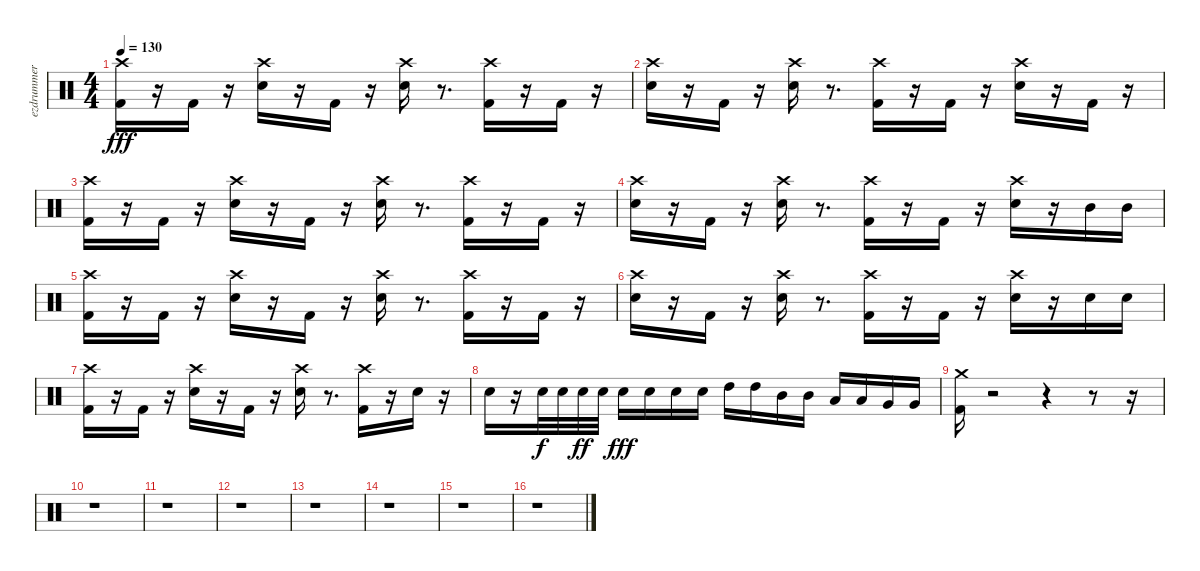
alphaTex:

\track ("ezdrummer 01" "ezdrummer ") {instrument percussion}
\staff {score}
\articulation defaults
\ts (4 4)
\tempo 130
\clef neutral
\ks c
("Kick (hit) 2" "Crash high (hit)").16{dy fff} r.16 "Kick (hit) 2".16 r.16 ("Snare (hit) 2" "Crash high (hit)").16 r.16 "Kick (hit) 2".16 r.16 ("Snare (hit) 2" "Crash high (hit)").16 r.8{d} ("Kick (hit) 2" "Crash high (hit)").16 r.16 "Kick (hit) 2".16 r.16 |
("Snare (hit) 2" "Crash high (hit)").16 r.16 "Kick (hit) 2".16 r.16 ("Snare (hit) 2" "Crash high (hit)").16 r.8{d} ("Kick (hit) 2" "Crash high (hit)").16 r.16 "Kick (hit) 2".16 r.16 ("Snare (hit) 2" "Crash high (hit)").16 r.16 "Kick (hit) 2".16 r.16 |
("Kick (hit) 2" "Crash high (hit)").16 r.16 "Kick (hit) 2".16 r.16 ("Snare (hit) 2" "Crash high (hit)").16 r.16 "Kick (hit) 2".16 r.16 ("Snare (hit) 2" "Crash high (hit)").16 r.8{d} ("Kick (hit) 2" "Crash high (hit)").16 r.16 "Kick (hit) 2".16 r.16 |
("Snare (hit) 2" "Crash high (hit)").16 r.16 "Kick (hit) 2".16 r.16 ("Snare (hit) 2" "Crash high (hit)").16 r.8{d} ("Kick (hit) 2" "Crash high (hit)").16 r.16 "Kick (hit) 2".16 r.16 ("Snare (hit) 2" "Crash high (hit)").16 r.16 "Mid Tom (hit)".16 "Mid Tom (hit)".16 |
("Kick (hit) 2" "Crash high (hit)").16 r.16 "Kick (hit) 2".16 r.16 ("Snare (hit) 2" "Crash high (hit)").16 r.16 "Kick (hit) 2".16 r.16 ("Snare (hit) 2" "Crash high (hit)").16 r.8{d} ("Kick (hit) 2" "Crash high (hit)").16 r.16 "Kick (hit) 2".16 r.16 |
("Snare (hit) 2" "Crash high (hit)").16 r.16 "Kick (hit) 2".16 r.16 ("Snare (hit) 2" "Crash high (hit)").16 r.8{d} ("Kick (hit) 2" "Crash high (hit)").16 r.16 "Kick (hit) 2".16 r.16 ("Snare (hit) 2" "Crash high (hit)").16 r.16 "Snare (hit) 2".16 "Snare (hit) 2".16 |
("Kick (hit) 2" "Crash high (hit)").16 r.16 "Kick (hit) 2".16 r.16 ("Snare (hit) 2" "Crash high (hit)").16 r.16 "Kick (hit) 2".16 r.16 ("Snare (hit) 2" "Crash high (hit)").16 r.8{d} ("Kick (hit) 2" "Crash high (hit)").16 r.16 "Snare (hit) 2".16 r.16 |
"Snare (hit) 2".16 r.16 "Snare (hit) 2".32{dy f} "Snare (hit) 2".32 "Snare (hit) 2".32{dy ff} "Snare (hit) 2".32 "Snare (hit) 2".16{dy fff} "Snare (hit) 2".16 "Snare (hit) 2".16 "Snare (hit) 2".16 "High Tom (hit)".16 "High Tom (hit)".16 "Mid Tom (hit)".16 "Mid Tom (hit)".16 "Low Tom (hit)".16 "Low Tom (hit)".16 "Very Low Tom (hit)".16 "Very Low Tom (hit)".16 |
("Kick (hit) 2" "Crash medium (hit)").16 r.2 r.4 r.8 r.16 |
r.1 |
r.1 |
r.1 |
r.1 |
r.1 |
r.1 |
r.1
